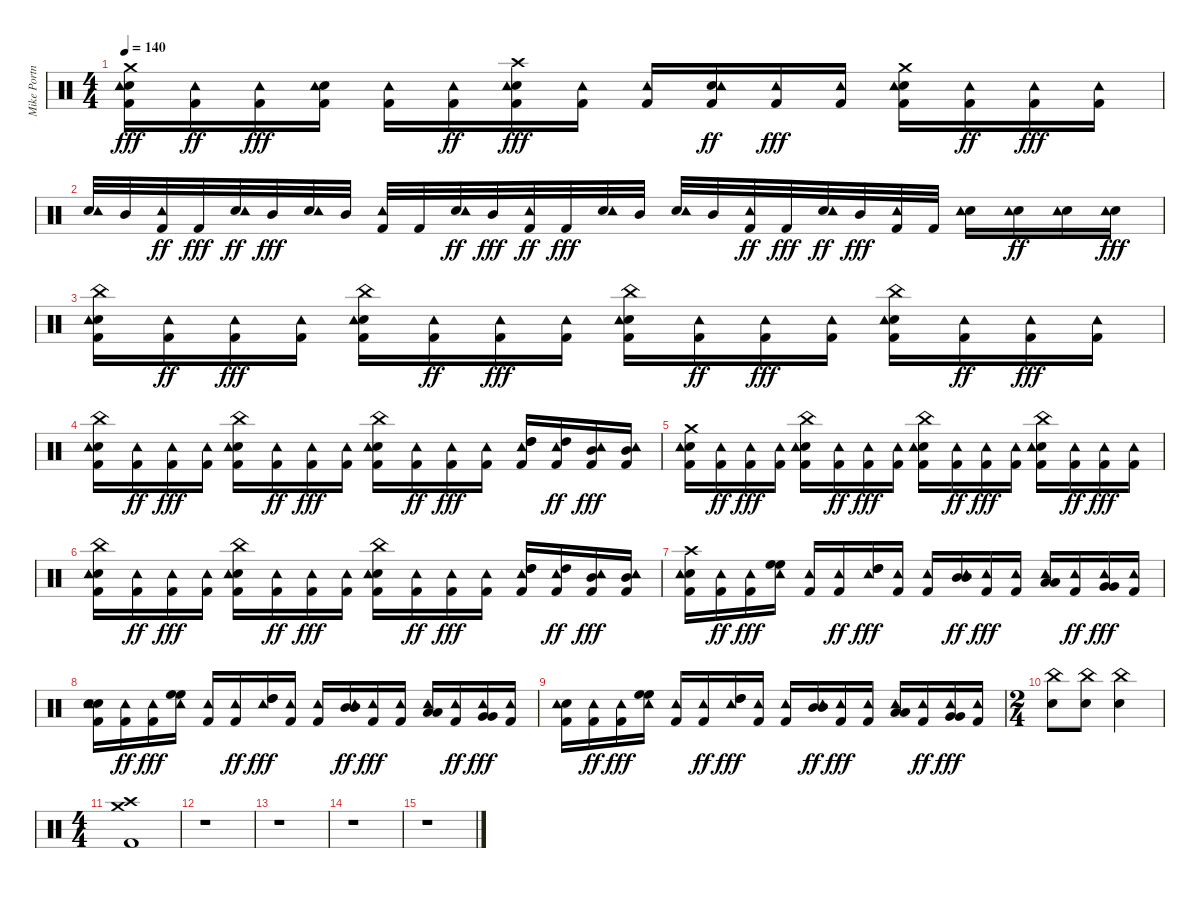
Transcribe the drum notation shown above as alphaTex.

\track ("Mike Portnoy" "Mike Portn") {instrument percussion}
\staff {score}
\articulation defaults
\ts (4 4)
\tempo 140
\clef neutral
\ks c
("Crash medium (hit)" "Snare (hit) 2" "Kick (hit) 2" "Tambourine (hit)").16{dy fff} ("Kick (hit) 2" "Tambourine (hit)").16{dy ff} ("Kick (hit) 2" "Tambourine (hit)").16{dy fff} ("Snare (hit) 2" "Kick (hit) 2" "Tambourine (hit)").16 ("Kick (hit) 2" "Tambourine (hit)").16 ("Kick (hit) 2" "Tambourine (hit)").16{dy ff} ("Crash high (hit)" "Snare (hit) 2" "Kick (hit) 2" "Tambourine (hit)").16{dy fff} ("Kick (hit) 2" "Tambourine (hit)").16 ("Kick (hit) 2" "Tambourine (hit)").16 ("Snare (hit) 2" "Kick (hit) 2" "Tambourine (hit)").16{dy ff} ("Kick (hit) 2" "Tambourine (hit)").16{dy fff} ("Kick (hit) 2" "Tambourine (hit)").16 ("Crash medium (hit)" "Snare (hit) 2" "Kick (hit) 2" "Tambourine (hit)").16 ("Kick (hit) 2" "Tambourine (hit)").16{dy ff} ("Kick (hit) 2" "Tambourine (hit)").16{dy fff} ("Kick (hit) 2" "Tambourine (hit)").16 |
("Snare (hit) 2" "Tambourine (hit)").32 "Mid Tom (hit)".32 ("Kick (hit) 2" "Tambourine (hit)").32{dy ff} "Kick (hit) 2".32{dy fff} ("Snare (hit) 2" "Tambourine (hit)").32{dy ff} "Mid Tom (hit)".32{dy fff} ("Snare (hit) 2" "Tambourine (hit)").32 "Mid Tom (hit)".32 ("Kick (hit) 2" "Tambourine (hit)").32 "Kick (hit) 2".32 ("Snare (hit) 2" "Tambourine (hit)").32{dy ff} "Mid Tom (hit)".32{dy fff} ("Kick (hit) 2" "Tambourine (hit)").32{dy ff} "Kick (hit) 2".32{dy fff} ("Snare (hit) 2" "Tambourine (hit)").32 "Mid Tom (hit)".32 ("Snare (hit) 2" "Tambourine (hit)").32 "Mid Tom (hit)".32 ("Kick (hit) 2" "Tambourine (hit)").32{dy ff} "Kick (hit) 2".32{dy fff} ("Snare (hit) 2" "Tambourine (hit)").32{dy ff} "Mid Tom (hit)".32{dy fff} ("Kick (hit) 2" "Tambourine (hit)").32 "Kick (hit) 2".32 ("Snare (hit) 2" "Tambourine (hit)").16 ("Snare (hit) 2" "Tambourine (hit)").16{dy ff} ("Snare (hit) 2" "Tambourine (hit)").16 ("Snare (hit) 2" "Tambourine (hit)").16{dy fff} |
("China (hit)" "Snare (hit) 2" "Kick (hit) 2" "Tambourine (hit)").16 ("Kick (hit) 2" "Tambourine (hit)").16{dy ff} ("Kick (hit) 2" "Tambourine (hit)").16{dy fff} ("Kick (hit) 2" "Tambourine (hit)").16 ("China (hit)" "Snare (hit) 2" "Kick (hit) 2" "Tambourine (hit)").16 ("Kick (hit) 2" "Tambourine (hit)").16{dy ff} ("Kick (hit) 2" "Tambourine (hit)").16{dy fff} ("Kick (hit) 2" "Tambourine (hit)").16 ("China (hit)" "Snare (hit) 2" "Kick (hit) 2" "Tambourine (hit)").16 ("Kick (hit) 2" "Tambourine (hit)").16{dy ff} ("Kick (hit) 2" "Tambourine (hit)").16{dy fff} ("Kick (hit) 2" "Tambourine (hit)").16 ("China (hit)" "Snare (hit) 2" "Kick (hit) 2" "Tambourine (hit)").16 ("Kick (hit) 2" "Tambourine (hit)").16{dy ff} ("Kick (hit) 2" "Tambourine (hit)").16{dy fff} ("Kick (hit) 2" "Tambourine (hit)").16 |
("China (hit)" "Snare (hit) 2" "Kick (hit) 2" "Tambourine (hit)").16 ("Kick (hit) 2" "Tambourine (hit)").16{dy ff} ("Kick (hit) 2" "Tambourine (hit)").16{dy fff} ("Kick (hit) 2" "Tambourine (hit)").16 ("China (hit)" "Snare (hit) 2" "Kick (hit) 2" "Tambourine (hit)").16 ("Kick (hit) 2" "Tambourine (hit)").16{dy ff} ("Kick (hit) 2" "Tambourine (hit)").16{dy fff} ("Kick (hit) 2" "Tambourine (hit)").16 ("China (hit)" "Snare (hit) 2" "Kick (hit) 2" "Tambourine (hit)").16 ("Kick (hit) 2" "Tambourine (hit)").16{dy ff} ("Kick (hit) 2" "Tambourine (hit)").16{dy fff} ("Kick (hit) 2" "Tambourine (hit)").16 ("High Tom (hit)" "High Tom (hit)" "Kick (hit) 2" "Tambourine (hit)").16 ("High Tom (hit)" "Kick (hit) 2" "Tambourine (hit)").16{dy ff} ("Mid Tom (hit)" "Kick (hit) 2" "Tambourine (hit)").16{dy fff} ("Mid Tom (hit)" "Kick (hit) 2" "Tambourine (hit)").16 |
("Crash medium (hit)" "Snare (hit) 2" "Kick (hit) 2" "Tambourine (hit)").16 ("Kick (hit) 2" "Tambourine (hit)").16{dy ff} ("Kick (hit) 2" "Tambourine (hit)").16{dy fff} ("Kick (hit) 2" "Tambourine (hit)").16 ("China (hit)" "Snare (hit) 2" "Kick (hit) 2" "Tambourine (hit)").16 ("Kick (hit) 2" "Tambourine (hit)").16{dy ff} ("Kick (hit) 2" "Tambourine (hit)").16{dy fff} ("Kick (hit) 2" "Tambourine (hit)").16 ("China (hit)" "Snare (hit) 2" "Kick (hit) 2" "Tambourine (hit)").16 ("Kick (hit) 2" "Tambourine (hit)").16{dy ff} ("Kick (hit) 2" "Tambourine (hit)").16{dy fff} ("Kick (hit) 2" "Tambourine (hit)").16 ("China (hit)" "Snare (hit) 2" "Kick (hit) 2" "Tambourine (hit)").16 ("Kick (hit) 2" "Tambourine (hit)").16{dy ff} ("Kick (hit) 2" "Tambourine (hit)").16{dy fff} ("Kick (hit) 2" "Tambourine (hit)").16 |
("China (hit)" "Snare (hit) 2" "Kick (hit) 2" "Tambourine (hit)").16 ("Kick (hit) 2" "Tambourine (hit)").16{dy ff} ("Kick (hit) 2" "Tambourine (hit)").16{dy fff} ("Kick (hit) 2" "Tambourine (hit)").16 ("China (hit)" "Snare (hit) 2" "Kick (hit) 2" "Tambourine (hit)").16 ("Kick (hit) 2" "Tambourine (hit)").16{dy ff} ("Kick (hit) 2" "Tambourine (hit)").16{dy fff} ("Kick (hit) 2" "Tambourine (hit)").16 ("China (hit)" "Snare (hit) 2" "Kick (hit) 2" "Tambourine (hit)").16 ("Kick (hit) 2" "Tambourine (hit)").16{dy ff} ("Kick (hit) 2" "Tambourine (hit)").16{dy fff} ("Kick (hit) 2" "Tambourine (hit)").16 ("High Tom (hit)" "High Tom (hit)" "Kick (hit) 2" "Tambourine (hit)").16 ("High Tom (hit)" "Kick (hit) 2" "Tambourine (hit)").16{dy ff} ("Mid Tom (hit)" "Kick (hit) 2" "Tambourine (hit)").16{dy fff} ("Mid Tom (hit)" "Kick (hit) 2" "Tambourine (hit)").16 |
("Crash high (hit)" "Snare (hit) 2" "Kick (hit) 2" "Tambourine (hit)").16 ("Kick (hit) 2" "Tambourine (hit)").16{dy ff} ("Kick (hit) 2" "Tambourine (hit)").16{dy fff} ("High Floor Tom (hit)" "High Floor Tom (hit)" "Tambourine (hit)").16 ("Kick (hit) 2" "Tambourine (hit)").16 ("Kick (hit) 2" "Tambourine (hit)").16{dy ff} ("High Tom (hit)" "High Tom (hit)" "Tambourine (hit)").16{dy fff} ("Kick (hit) 2" "Tambourine (hit)").16 ("Kick (hit) 2" "Tambourine (hit)").16 ("Mid Tom (hit)" "Mid Tom (hit)" "Tambourine (hit)").16{dy ff} ("Kick (hit) 2" "Tambourine (hit)").16{dy fff} ("Kick (hit) 2" "Tambourine (hit)").16 ("Low Tom (hit)" "Low Tom (hit)" "Tambourine (hit)").16 ("Kick (hit) 2" "Tambourine (hit)").16{dy ff} ("Very Low Tom (hit)" "Very Low Tom (hit)" "Tambourine (hit)").16{dy fff} ("Kick (hit) 2" "Tambourine (hit)").16 |
("Snare (hit) 2" "Snare (hit) 2" "Kick (hit) 2" "Tambourine (hit)").16 ("Kick (hit) 2" "Tambourine (hit)").16{dy ff} ("Kick (hit) 2" "Tambourine (hit)").16{dy fff} ("High Floor Tom (hit)" "High Floor Tom (hit)" "Tambourine (hit)").16 ("Kick (hit) 2" "Tambourine (hit)").16 ("Kick (hit) 2" "Tambourine (hit)").16{dy ff} ("High Tom (hit)" "High Tom (hit)" "Tambourine (hit)").16{dy fff} ("Kick (hit) 2" "Tambourine (hit)").16 ("Kick (hit) 2" "Tambourine (hit)").16 ("Mid Tom (hit)" "Mid Tom (hit)" "Tambourine (hit)").16{dy ff} ("Kick (hit) 2" "Tambourine (hit)").16{dy fff} ("Kick (hit) 2" "Tambourine (hit)").16 ("Low Tom (hit)" "Low Tom (hit)" "Tambourine (hit)").16 ("Kick (hit) 2" "Tambourine (hit)").16{dy ff} ("Very Low Tom (hit)" "Very Low Tom (hit)" "Tambourine (hit)").16{dy fff} ("Kick (hit) 2" "Tambourine (hit)").16 |
("Snare (hit) 2" "Kick (hit) 2" "Tambourine (hit)").16 ("Kick (hit) 2" "Tambourine (hit)").16{dy ff} ("Kick (hit) 2" "Tambourine (hit)").16{dy fff} ("High Floor Tom (hit)" "High Floor Tom (hit)" "Tambourine (hit)").16 ("Kick (hit) 2" "Tambourine (hit)").16 ("Kick (hit) 2" "Tambourine (hit)").16{dy ff} ("High Tom (hit)" "High Tom (hit)" "Tambourine (hit)").16{dy fff} ("Kick (hit) 2" "Tambourine (hit)").16 ("Kick (hit) 2" "Tambourine (hit)").16 ("Mid Tom (hit)" "Mid Tom (hit)" "Tambourine (hit)").16{dy ff} ("Kick (hit) 2" "Tambourine (hit)").16{dy fff} ("Kick (hit) 2" "Tambourine (hit)").16 ("Low Tom (hit)" "Low Tom (hit)" "Tambourine (hit)").16 ("Kick (hit) 2" "Tambourine (hit)").16{dy ff} ("Very Low Tom (hit)" "Very Low Tom (hit)" "Tambourine (hit)").16{dy fff} ("Kick (hit) 2" "Tambourine (hit)").16 |
\ts (2 4)
("China (hit)" "Snare (hit) 2").8 ("China (hit)" "Snare (hit) 2").8 ("China (hit)" "Snare (hit) 2").4 |
\ts (4 4)
("Crash high (hit)" "Crash medium (hit)" "Kick (hit) 2").1 |
r.1 |
r.1 |
r.1 |
r.1
